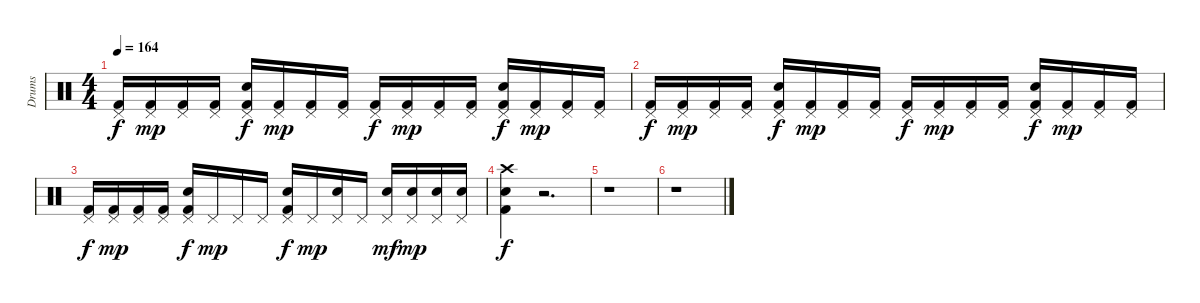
\track ("Drums" "Drums") {instrument percussion}
\staff {score}
\articulation defaults
\ts (4 4)
\tempo 164
\clef neutral
\ks c
("Pedal Hi-Hat (hit)" "Kick (hit) 2").16{dy f} ("Pedal Hi-Hat (hit)" "Kick (hit) 2").16{dy mp} ("Pedal Hi-Hat (hit)" "Kick (hit) 2").16 ("Pedal Hi-Hat (hit)" "Kick (hit) 2").16 ("Pedal Hi-Hat (hit)" "Snare (hit) 2" "Kick (hit) 2").16{dy f} ("Pedal Hi-Hat (hit)" "Kick (hit) 2").16{dy mp} ("Pedal Hi-Hat (hit)" "Kick (hit) 2").16 ("Pedal Hi-Hat (hit)" "Kick (hit) 2").16 ("Pedal Hi-Hat (hit)" "Kick (hit) 2").16{dy f} ("Pedal Hi-Hat (hit)" "Kick (hit) 2").16{dy mp} ("Pedal Hi-Hat (hit)" "Kick (hit) 2").16 ("Pedal Hi-Hat (hit)" "Kick (hit) 2").16 ("Pedal Hi-Hat (hit)" "Snare (hit) 2" "Kick (hit) 2").16{dy f} ("Pedal Hi-Hat (hit)" "Kick (hit) 2").16{dy mp} ("Pedal Hi-Hat (hit)" "Kick (hit) 2").16 ("Pedal Hi-Hat (hit)" "Kick (hit) 2").16 |
("Pedal Hi-Hat (hit)" "Kick (hit) 2").16{dy f} ("Pedal Hi-Hat (hit)" "Kick (hit) 2").16{dy mp} ("Pedal Hi-Hat (hit)" "Kick (hit) 2").16 ("Pedal Hi-Hat (hit)" "Kick (hit) 2").16 ("Pedal Hi-Hat (hit)" "Snare (hit) 2" "Kick (hit) 2").16{dy f} ("Pedal Hi-Hat (hit)" "Kick (hit) 2").16{dy mp} ("Pedal Hi-Hat (hit)" "Kick (hit) 2").16 ("Pedal Hi-Hat (hit)" "Kick (hit) 2").16 ("Pedal Hi-Hat (hit)" "Kick (hit) 2").16{dy f} ("Pedal Hi-Hat (hit)" "Kick (hit) 2").16{dy mp} ("Pedal Hi-Hat (hit)" "Kick (hit) 2").16 ("Pedal Hi-Hat (hit)" "Kick (hit) 2").16 ("Pedal Hi-Hat (hit)" "Snare (hit) 2" "Kick (hit) 2").16{dy f} ("Pedal Hi-Hat (hit)" "Kick (hit) 2").16{dy mp} ("Pedal Hi-Hat (hit)" "Kick (hit) 2").16 ("Pedal Hi-Hat (hit)" "Kick (hit) 2").16 |
("Pedal Hi-Hat (hit)" "Kick (hit) 2").16{dy f} ("Pedal Hi-Hat (hit)" "Kick (hit) 2").16{dy mp} ("Pedal Hi-Hat (hit)" "Kick (hit) 2").16 ("Pedal Hi-Hat (hit)" "Kick (hit) 2").16 ("Pedal Hi-Hat (hit)" "Snare (hit) 2" "Kick (hit) 2").16{dy f} "Pedal Hi-Hat (hit)".16{dy mp} "Pedal Hi-Hat (hit)".16 "Pedal Hi-Hat (hit)".16 ("Snare (hit) 2" "Pedal Hi-Hat (hit)" "Kick (hit) 2").16{dy f} "Pedal Hi-Hat (hit)".16{dy mp} ("Snare (hit) 2" "Pedal Hi-Hat (hit)").16 "Pedal Hi-Hat (hit)".16 ("Snare (hit) 2" "Pedal Hi-Hat (hit)").16{dy mf} ("Snare (hit) 2" "Pedal Hi-Hat (hit)").16{dy mp} ("Snare (hit) 2" "Pedal Hi-Hat (hit)").16 ("Snare (hit) 2" "Pedal Hi-Hat (hit)").16 |
("Crash high (hit)" "Kick (hit) 2" "Snare (hit) 2").4{dy f} r.2{d} |
r.1 |
r.1
